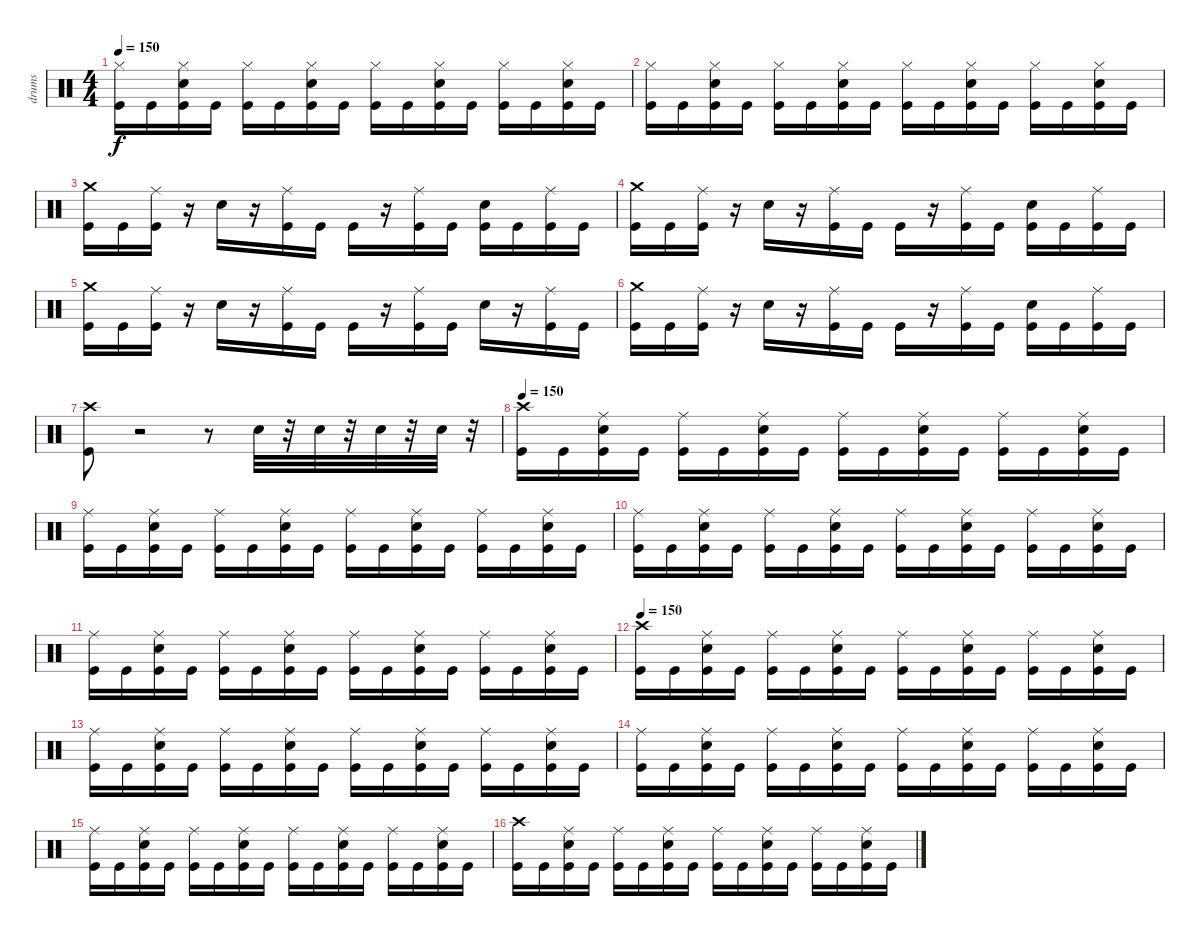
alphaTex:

\track ("drums" "drums") {instrument percussion}
\staff {score}
\articulation defaults
\ts (4 4)
\tempo 150
\clef neutral
\ks c
("Hi-Hat (closed)" "Kick (hit)").16{dy f} "Kick (hit)".16 ("Hi-Hat (closed)" "Kick (hit)" "Electric Snare (hit)").16 "Kick (hit)".16 ("Hi-Hat (closed)" "Kick (hit)").16 "Kick (hit)".16 ("Hi-Hat (closed)" "Electric Snare (hit)" "Kick (hit)").16 "Kick (hit)".16 ("Hi-Hat (closed)" "Kick (hit)").16 "Kick (hit)".16 ("Hi-Hat (closed)" "Electric Snare (hit)" "Kick (hit)").16 "Kick (hit)".16 ("Hi-Hat (closed)" "Kick (hit)").16 "Kick (hit)".16 ("Hi-Hat (closed)" "Electric Snare (hit)" "Kick (hit)").16 "Kick (hit)".16 |
("Hi-Hat (closed)" "Kick (hit)").16 "Kick (hit)".16 ("Hi-Hat (closed)" "Kick (hit)" "Electric Snare (hit)").16 "Kick (hit)".16 ("Hi-Hat (closed)" "Kick (hit)").16 "Kick (hit)".16 ("Hi-Hat (closed)" "Electric Snare (hit)" "Kick (hit)").16 "Kick (hit)".16 ("Hi-Hat (closed)" "Kick (hit)").16 "Kick (hit)".16 ("Hi-Hat (closed)" "Electric Snare (hit)" "Kick (hit)").16 "Kick (hit)".16 ("Hi-Hat (closed)" "Kick (hit)").16 "Kick (hit)".16 ("Hi-Hat (closed)" "Electric Snare (hit)" "Kick (hit)").16 "Kick (hit)".16 |
("Crash medium (hit)" "Kick (hit)").16 "Kick (hit)".16 ("Ride (middle)" "Kick (hit)").16 r.16 "Electric Snare (hit)".16 r.16 ("Ride (middle)" "Kick (hit)").16 "Kick (hit)".16 "Kick (hit)".16 r.16 ("Ride (middle)" "Kick (hit)").16 "Kick (hit)".16 ("Kick (hit)" "Electric Snare (hit)").16 "Kick (hit)".16 ("Ride (middle)" "Kick (hit)").16 "Kick (hit)".16 |
("Crash medium (hit)" "Kick (hit)").16 "Kick (hit)".16 ("Ride (middle)" "Kick (hit)").16 r.16 "Electric Snare (hit)".16 r.16 ("Ride (middle)" "Kick (hit)").16 "Kick (hit)".16 "Kick (hit)".16 r.16 ("Ride (middle)" "Kick (hit)").16 "Kick (hit)".16 ("Kick (hit)" "Electric Snare (hit)").16 "Kick (hit)".16 ("Ride (middle)" "Kick (hit)").16 "Kick (hit)".16 |
("Crash medium (hit)" "Kick (hit)").16 "Kick (hit)".16 ("Ride (middle)" "Kick (hit)").16 r.16 "Electric Snare (hit)".16 r.16 ("Ride (middle)" "Kick (hit)").16 "Kick (hit)".16 "Kick (hit)".16 r.16 ("Ride (middle)" "Kick (hit)").16 "Kick (hit)".16 "Electric Snare (hit)".16 r.16 ("Ride (middle)" "Kick (hit)").16 "Kick (hit)".16 |
("Crash medium (hit)" "Kick (hit)").16 "Kick (hit)".16 ("Ride (middle)" "Kick (hit)").16 r.16 "Electric Snare (hit)".16 r.16 ("Ride (middle)" "Kick (hit)").16 "Kick (hit)".16 "Kick (hit)".16 r.16 ("Ride (middle)" "Kick (hit)").16 "Kick (hit)".16 ("Kick (hit)" "Electric Snare (hit)").16 "Kick (hit)".16 ("Ride (middle)" "Kick (hit)").16 "Kick (hit)".16 |
("Kick (hit)" "Crash high (hit)").8 r.2 r.8 "Electric Snare (hit)".32 r.32 "Electric Snare (hit)".32 r.32 "Electric Snare (hit)".32 r.32 "Electric Snare (hit)".32 r.32 |
\tempo 150
("Crash high (hit)" "Kick (hit)").16 "Kick (hit)".16 ("Ride (middle)" "Kick (hit)" "Electric Snare (hit)").16 "Kick (hit)".16 ("Ride (middle)" "Kick (hit)").16 "Kick (hit)".16 ("Ride (middle)" "Electric Snare (hit)" "Kick (hit)").16 "Kick (hit)".16 ("Ride (middle)" "Kick (hit)").16 "Kick (hit)".16 ("Ride (middle)" "Electric Snare (hit)" "Kick (hit)").16 "Kick (hit)".16 ("Ride (middle)" "Kick (hit)").16 "Kick (hit)".16 ("Ride (middle)" "Electric Snare (hit)" "Kick (hit)").16 "Kick (hit)".16 |
("Ride (middle)" "Kick (hit)").16 "Kick (hit)".16 ("Ride (middle)" "Electric Snare (hit)" "Kick (hit)").16 "Kick (hit)".16 ("Ride (middle)" "Kick (hit)").16 "Kick (hit)".16 ("Ride (middle)" "Electric Snare (hit)" "Kick (hit)").16 "Kick (hit)".16 ("Ride (middle)" "Kick (hit)").16 "Kick (hit)".16 ("Ride (middle)" "Electric Snare (hit)" "Kick (hit)").16 "Kick (hit)".16 ("Ride (middle)" "Kick (hit)").16 "Kick (hit)".16 ("Ride (middle)" "Electric Snare (hit)" "Kick (hit)").16 "Kick (hit)".16 |
("Ride (middle)" "Kick (hit)").16 "Kick (hit)".16 ("Ride (middle)" "Electric Snare (hit)" "Kick (hit)").16 "Kick (hit)".16 ("Ride (middle)" "Kick (hit)").16 "Kick (hit)".16 ("Ride (middle)" "Electric Snare (hit)" "Kick (hit)").16 "Kick (hit)".16 ("Ride (middle)" "Kick (hit)").16 "Kick (hit)".16 ("Ride (middle)" "Electric Snare (hit)" "Kick (hit)").16 "Kick (hit)".16 ("Ride (middle)" "Kick (hit)").16 "Kick (hit)".16 ("Ride (middle)" "Electric Snare (hit)" "Kick (hit)").16 "Kick (hit)".16 |
("Ride (middle)" "Kick (hit)").16 "Kick (hit)".16 ("Ride (middle)" "Electric Snare (hit)" "Kick (hit)").16 "Kick (hit)".16 ("Ride (middle)" "Kick (hit)").16 "Kick (hit)".16 ("Ride (middle)" "Electric Snare (hit)" "Kick (hit)").16 "Kick (hit)".16 ("Ride (middle)" "Kick (hit)").16 "Kick (hit)".16 ("Ride (middle)" "Electric Snare (hit)" "Kick (hit)").16 "Kick (hit)".16 ("Ride (middle)" "Kick (hit)").16 "Kick (hit)".16 ("Ride (middle)" "Electric Snare (hit)" "Kick (hit)").16 "Kick (hit)".16 |
\tempo 150
("Crash high (hit)" "Kick (hit)").16 "Kick (hit)".16 ("Ride (middle)" "Kick (hit)" "Electric Snare (hit)").16 "Kick (hit)".16 ("Ride (middle)" "Kick (hit)").16 "Kick (hit)".16 ("Ride (middle)" "Electric Snare (hit)" "Kick (hit)").16 "Kick (hit)".16 ("Ride (middle)" "Kick (hit)").16 "Kick (hit)".16 ("Ride (middle)" "Electric Snare (hit)" "Kick (hit)").16 "Kick (hit)".16 ("Ride (middle)" "Kick (hit)").16 "Kick (hit)".16 ("Ride (middle)" "Electric Snare (hit)" "Kick (hit)").16 "Kick (hit)".16 |
("Ride (middle)" "Kick (hit)").16 "Kick (hit)".16 ("Ride (middle)" "Electric Snare (hit)" "Kick (hit)").16 "Kick (hit)".16 ("Ride (middle)" "Kick (hit)").16 "Kick (hit)".16 ("Ride (middle)" "Electric Snare (hit)" "Kick (hit)").16 "Kick (hit)".16 ("Ride (middle)" "Kick (hit)").16 "Kick (hit)".16 ("Ride (middle)" "Electric Snare (hit)" "Kick (hit)").16 "Kick (hit)".16 ("Ride (middle)" "Kick (hit)").16 "Kick (hit)".16 ("Ride (middle)" "Electric Snare (hit)" "Kick (hit)").16 "Kick (hit)".16 |
("Ride (middle)" "Kick (hit)").16 "Kick (hit)".16 ("Ride (middle)" "Electric Snare (hit)" "Kick (hit)").16 "Kick (hit)".16 ("Ride (middle)" "Kick (hit)").16 "Kick (hit)".16 ("Ride (middle)" "Electric Snare (hit)" "Kick (hit)").16 "Kick (hit)".16 ("Ride (middle)" "Kick (hit)").16 "Kick (hit)".16 ("Ride (middle)" "Electric Snare (hit)" "Kick (hit)").16 "Kick (hit)".16 ("Ride (middle)" "Kick (hit)").16 "Kick (hit)".16 ("Ride (middle)" "Electric Snare (hit)" "Kick (hit)").16 "Kick (hit)".16 |
("Ride (middle)" "Kick (hit)").16 "Kick (hit)".16 ("Ride (middle)" "Electric Snare (hit)" "Kick (hit)").16 "Kick (hit)".16 ("Ride (middle)" "Kick (hit)").16 "Kick (hit)".16 ("Ride (middle)" "Electric Snare (hit)" "Kick (hit)").16 "Kick (hit)".16 ("Ride (middle)" "Kick (hit)").16 "Kick (hit)".16 ("Ride (middle)" "Electric Snare (hit)" "Kick (hit)").16 "Kick (hit)".16 ("Ride (middle)" "Kick (hit)").16 "Kick (hit)".16 ("Ride (middle)" "Electric Snare (hit)" "Kick (hit)").16 "Kick (hit)".16 |
("Crash high (hit)" "Kick (hit)").16 "Kick (hit)".16 ("Ride (middle)" "Kick (hit)" "Electric Snare (hit)").16 "Kick (hit)".16 ("Ride (middle)" "Kick (hit)").16 "Kick (hit)".16 ("Ride (middle)" "Electric Snare (hit)" "Kick (hit)").16 "Kick (hit)".16 ("Ride (middle)" "Kick (hit)").16 "Kick (hit)".16 ("Ride (middle)" "Electric Snare (hit)" "Kick (hit)").16 "Kick (hit)".16 ("Ride (middle)" "Kick (hit)").16 "Kick (hit)".16 ("Ride (middle)" "Electric Snare (hit)" "Kick (hit)").16 "Kick (hit)".16
